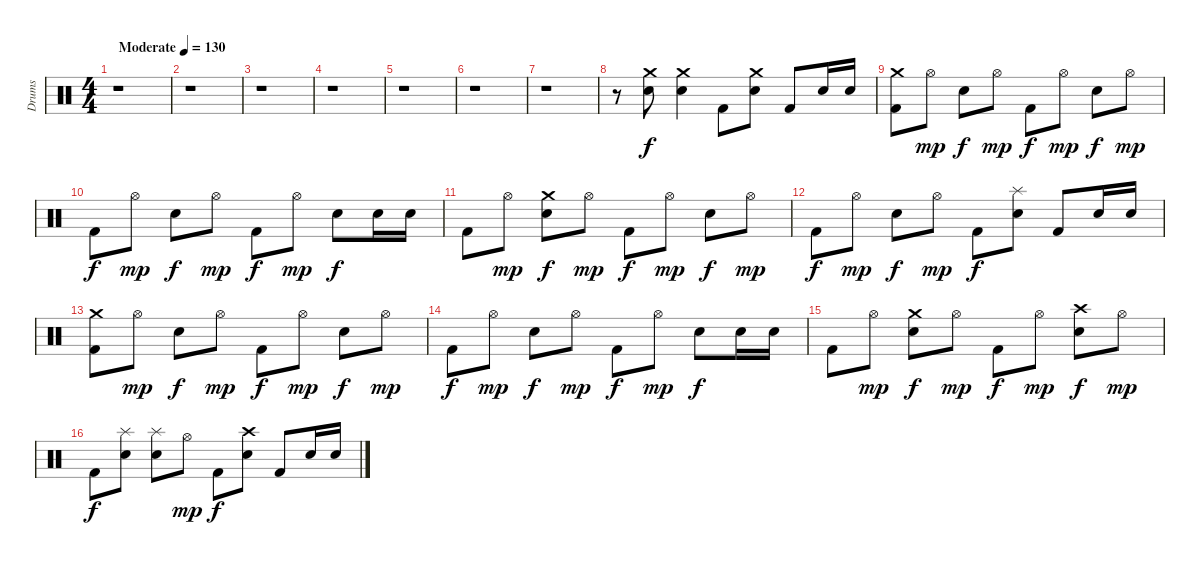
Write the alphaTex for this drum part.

\track ("Drums" "Drums") {instrument percussion}
\staff {score}
\articulation defaults
\ts (4 4)
\tempo (130 "Moderate")
\clef neutral
\ks c
r.1{dy f} |
r.1 |
r.1 |
r.1 |
r.1 |
r.1 |
r.1 |
r.8 ("Crash medium (hit)" "Snare (hit) 2").8 ("Crash medium (hit)" "Snare (hit) 2").4 "Kick (hit) 2".8 ("Crash medium (hit)" "Snare (hit) 2").8 "Kick (hit) 2".8 "Snare (hit) 2".16 "Snare (hit) 2".16 |
("Crash medium (hit)" "Kick (hit) 2").8 "Hi-Hat (open)".8{dy mp} "Snare (hit) 2".8{dy f} "Hi-Hat (open)".8{dy mp} "Kick (hit) 2".8{dy f} "Hi-Hat (open)".8{dy mp} "Snare (hit) 2".8{dy f} "Hi-Hat (open)".8{dy mp} |
"Kick (hit) 2".8{dy f} "Hi-Hat (open)".8{dy mp} "Snare (hit) 2".8{dy f} "Hi-Hat (open)".8{dy mp} "Kick (hit) 2".8{dy f} "Hi-Hat (open)".8{dy mp} "Snare (hit) 2".8{dy f} "Snare (hit) 2".16 "Snare (hit) 2".16 |
"Kick (hit) 2".8 "Hi-Hat (open)".8{dy mp} ("Crash medium (hit)" "Snare (hit) 2").8{dy f} "Hi-Hat (open)".8{dy mp} "Kick (hit) 2".8{dy f} "Hi-Hat (open)".8{dy mp} "Snare (hit) 2".8{dy f} "Hi-Hat (open)".8{dy mp} |
"Kick (hit) 2".8{dy f} "Hi-Hat (open)".8{dy mp} "Snare (hit) 2".8{dy f} "Hi-Hat (open)".8{dy mp} "Kick (hit) 2".8{dy f} ("Splash (hit)" "Snare (hit) 2").8 "Kick (hit) 2".8 "Snare (hit) 2".16 "Snare (hit) 2".16 |
("Crash medium (hit)" "Kick (hit) 2").8 "Hi-Hat (open)".8{dy mp} "Snare (hit) 2".8{dy f} "Hi-Hat (open)".8{dy mp} "Kick (hit) 2".8{dy f} "Hi-Hat (open)".8{dy mp} "Snare (hit) 2".8{dy f} "Hi-Hat (open)".8{dy mp} |
"Kick (hit) 2".8{dy f} "Hi-Hat (open)".8{dy mp} "Snare (hit) 2".8{dy f} "Hi-Hat (open)".8{dy mp} "Kick (hit) 2".8{dy f} "Hi-Hat (open)".8{dy mp} "Snare (hit) 2".8{dy f} "Snare (hit) 2".16 "Snare (hit) 2".16 |
"Kick (hit) 2".8 "Hi-Hat (open)".8{dy mp} ("Crash medium (hit)" "Snare (hit) 2").8{dy f} "Hi-Hat (open)".8{dy mp} "Kick (hit) 2".8{dy f} "Hi-Hat (open)".8{dy mp} ("Crash high (hit)" "Snare (hit) 2").8{dy f} "Hi-Hat (open)".8{dy mp} |
"Kick (hit) 2".8{dy f} ("Splash (hit)" "Snare (hit) 2").8 ("Splash (hit)" "Snare (hit) 2").8 "Hi-Hat (open)".8{dy mp} "Kick (hit) 2".8{dy f} ("Crash high (hit)" "Snare (hit) 2").8 "Kick (hit) 2".8 "Snare (hit) 2".16 "Snare (hit) 2".16
